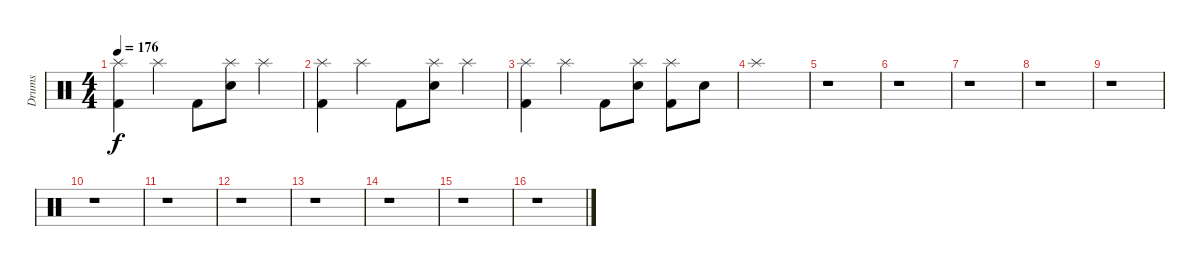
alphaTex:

\track ("Drums" "Drums") {instrument percussion}
\staff {score}
\articulation defaults
\ts (4 4)
\tempo 176
\clef neutral
\ks c
("Splash (hit)" "Kick (hit) 2").4{dy f} "Splash (hit)".4 "Kick (hit) 2".8 ("Splash (hit)" "Snare (hit) 2").8 "Splash (hit)".4 |
("Splash (hit)" "Kick (hit) 2").4 "Splash (hit)".4 "Kick (hit) 2".8 ("Splash (hit)" "Snare (hit) 2").8 "Splash (hit)".4 |
("Splash (hit)" "Kick (hit) 2").4 "Splash (hit)".4 "Kick (hit) 2".8 ("Splash (hit)" "Snare (hit) 2").8 ("Splash (hit)" "Kick (hit) 2").8 "Snare (hit) 2".8 |
"Splash (hit)".1 |
r.1 |
r.1 |
r.1 |
r.1 |
r.1 |
r.1 |
r.1 |
r.1 |
r.1 |
r.1 |
r.1 |
r.1
